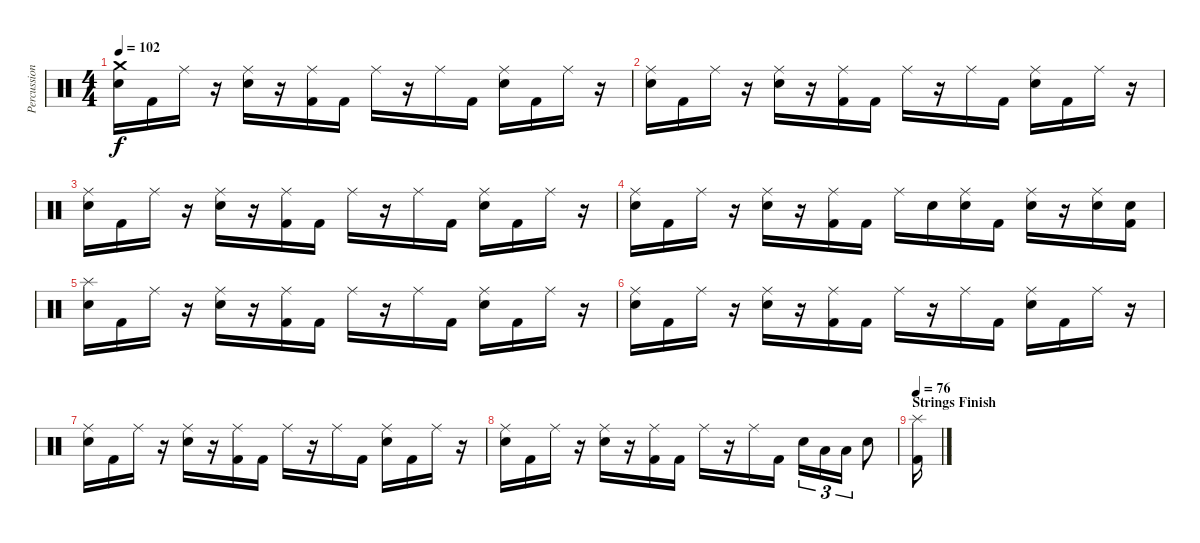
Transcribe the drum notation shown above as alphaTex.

\track ("Percussion" "Percussion") {instrument percussion}
\staff {score}
\articulation defaults
\ts (4 4)
\tempo 102
\clef neutral
\ks c
("Crash medium (hit)" "Snare (hit) 2").16{dy f} "Kick (hit) 2".16 "Ride (middle)".16 r.16 ("Ride (middle)" "Snare (hit) 2").16 r.16 ("Ride (middle)" "Kick (hit) 2").16 "Kick (hit) 2".16 "Ride (middle)".16 r.16 "Ride (middle)".16 "Kick (hit) 2".16 ("Ride (middle)" "Snare (hit) 2").16 "Kick (hit) 2".16 "Ride (middle)".16 r.16 |
("Ride (middle)" "Snare (hit) 2").16 "Kick (hit) 2".16 "Ride (middle)".16 r.16 ("Ride (middle)" "Snare (hit) 2").16 r.16 ("Ride (middle)" "Kick (hit) 2").16 "Kick (hit) 2".16 "Ride (middle)".16 r.16 "Ride (middle)".16 "Kick (hit) 2".16 ("Ride (middle)" "Snare (hit) 2").16 "Kick (hit) 2".16 "Ride (middle)".16 r.16 |
("Ride (middle)" "Snare (hit) 2").16 "Kick (hit) 2".16 "Ride (middle)".16 r.16 ("Ride (middle)" "Snare (hit) 2").16 r.16 ("Ride (middle)" "Kick (hit) 2").16 "Kick (hit) 2".16 "Ride (middle)".16 r.16 "Ride (middle)".16 "Kick (hit) 2".16 ("Ride (middle)" "Snare (hit) 2").16 "Kick (hit) 2".16 "Ride (middle)".16 r.16 |
("Ride (middle)" "Snare (hit) 2").16 "Kick (hit) 2".16 "Ride (middle)".16 r.16 ("Ride (middle)" "Snare (hit) 2").16 r.16 ("Ride (middle)" "Kick (hit) 2").16 "Kick (hit) 2".16 "Ride (middle)".16 "Snare (hit) 2".16 ("Ride (middle)" "Snare (hit) 2").16 "Kick (hit) 2".16 ("Ride (middle)" "Snare (hit) 2").16 r.16 ("Ride (middle)" "Snare (hit) 2").16 ("Snare (hit) 2" "Kick (hit) 2").16 |
("Splash (hit)" "Snare (hit) 2").16 "Kick (hit) 2".16 "Ride (middle)".16 r.16 ("Ride (middle)" "Snare (hit) 2").16 r.16 ("Ride (middle)" "Kick (hit) 2").16 "Kick (hit) 2".16 "Ride (middle)".16 r.16 "Ride (middle)".16 "Kick (hit) 2".16 ("Ride (middle)" "Snare (hit) 2").16 "Kick (hit) 2".16 "Ride (middle)".16 r.16 |
("Ride (middle)" "Snare (hit) 2").16 "Kick (hit) 2".16 "Ride (middle)".16 r.16 ("Ride (middle)" "Snare (hit) 2").16 r.16 ("Ride (middle)" "Kick (hit) 2").16 "Kick (hit) 2".16 "Ride (middle)".16 r.16 "Ride (middle)".16 "Kick (hit) 2".16 ("Ride (middle)" "Snare (hit) 2").16 "Kick (hit) 2".16 "Ride (middle)".16 r.16 |
("Ride (middle)" "Snare (hit) 2").16 "Kick (hit) 2".16 "Ride (middle)".16 r.16 ("Ride (middle)" "Snare (hit) 2").16 r.16 ("Ride (middle)" "Kick (hit) 2").16 "Kick (hit) 2".16 "Ride (middle)".16 r.16 "Ride (middle)".16 "Kick (hit) 2".16 ("Ride (middle)" "Snare (hit) 2").16 "Kick (hit) 2".16 "Ride (middle)".16 r.16 |
("Ride (middle)" "Snare (hit) 2").16 "Kick (hit) 2".16 "Ride (middle)".16 r.16 ("Ride (middle)" "Snare (hit) 2").16 r.16 ("Ride (middle)" "Kick (hit) 2").16 "Kick (hit) 2".16 "Ride (middle)".16 r.16 "Ride (middle)".16 "Kick (hit) 2".16 "Snare (hit) 2".16{tu (3 2)} "Low Floor Tom (hit)".16{tu (3 2)} "Low Floor Tom (hit)".16{tu (3 2)} "Snare (hit) 2".8 |
\section ("" "Strings Finish")
\tempo 76
("Splash (hit)" "Kick (hit) 2").16
